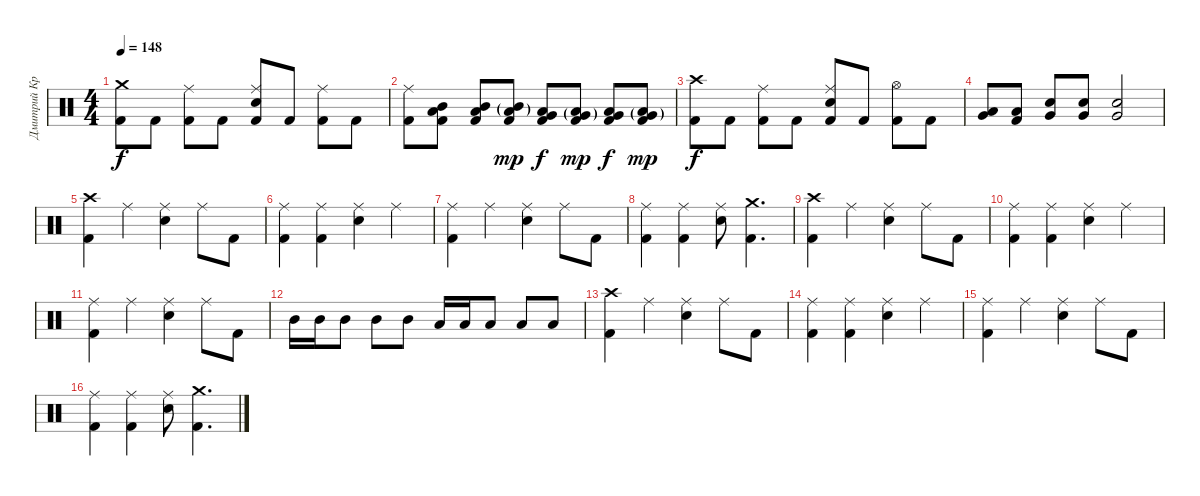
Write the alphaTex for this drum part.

\track ("Дмитрий Кривенков" "Дмитрий Кр") {instrument percussion}
\staff {score}
\articulation defaults
\ts (4 4)
\tempo 148
\clef neutral
\ks c
("Crash medium (hit)" "Kick (hit) 2").8{dy f} "Kick (hit) 2".8 ("Ride (middle)" "Kick (hit) 2").8 "Kick (hit) 2".8 ("Ride (middle)" "Electric Snare (hit)" "Kick (hit) 2").8 "Kick (hit) 2".8 ("Ride (middle)" "Kick (hit) 2").8 "Kick (hit) 2".8 |
("Ride (middle)" "Kick (hit) 2").8 ("Mid Tom (hit)" "Low Tom (hit)" "Kick (hit) 2").8 ("Mid Tom (hit)" "Low Tom (hit)" "Kick (hit) 2").8 ("Mid Tom (hit)"{g} "Low Tom (hit)"{g} "Kick (hit) 2").8{dy mp} ("Low Tom (hit)" "Very Low Tom (hit)" "Kick (hit) 2").8{dy f} ("Low Tom (hit)"{g} "Very Low Tom (hit)"{g} "Kick (hit) 2").8{dy mp} ("Very Low Tom (hit)" "Low Floor Tom (hit)" "Kick (hit) 2").8{dy f} ("Very Low Tom (hit)"{g} "Low Floor Tom (hit)"{g} "Kick (hit) 2").8{dy mp} |
("Crash high (hit)" "Kick (hit) 2").8{dy f} "Kick (hit) 2".8 ("Ride (middle)" "Kick (hit) 2").8 "Kick (hit) 2".8 ("Ride (middle)" "Electric Snare (hit)" "Kick (hit) 2").8 "Kick (hit) 2".8 ("Hi-Hat (open)" "Kick (hit) 2").8 "Kick (hit) 2".8 |
("Very Low Tom (hit)" "Low Floor Tom (hit)").8 ("Low Floor Tom (hit)" "Kick (hit) 2").8 ("Electric Snare (hit)" "Very Low Tom (hit)").8 ("Electric Snare (hit)" "Very Low Tom (hit)").8 ("Electric Snare (hit)" "Very Low Tom (hit)").2 |
("Crash high (hit)" "Kick (hit) 2").4 "Ride (middle)".4 ("Ride (middle)" "Electric Snare (hit)").4 "Ride (middle)".8 "Kick (hit) 2".8 |
("Ride (middle)" "Kick (hit) 2").4 ("Ride (middle)" "Kick (hit) 2").4 ("Ride (middle)" "Electric Snare (hit)").4 "Ride (middle)".4 |
("Ride (middle)" "Kick (hit) 2").4 "Ride (middle)".4 ("Ride (middle)" "Electric Snare (hit)").4 "Ride (middle)".8 "Kick (hit) 2".8 |
("Ride (middle)" "Kick (hit) 2").4 ("Ride (middle)" "Kick (hit) 2").4 ("Ride (middle)" "Electric Snare (hit)").8 ("Crash medium (hit)" "Kick (hit) 2").4{d} |
("Crash high (hit)" "Kick (hit) 2").4 "Ride (middle)".4 ("Ride (middle)" "Electric Snare (hit)").4 "Ride (middle)".8 "Kick (hit) 2".8 |
("Ride (middle)" "Kick (hit) 2").4 ("Ride (middle)" "Kick (hit) 2").4 ("Ride (middle)" "Electric Snare (hit)").4 "Ride (middle)".4 |
("Ride (middle)" "Kick (hit) 2").4 "Ride (middle)".4 ("Ride (middle)" "Electric Snare (hit)").4 "Ride (middle)".8 "Kick (hit) 2".8 |
"Mid Tom (hit)".16 "Mid Tom (hit)".16 "Mid Tom (hit)".8 "Mid Tom (hit)".8 "Mid Tom (hit)".8 "Low Tom (hit)".16 "Low Tom (hit)".16 "Low Tom (hit)".8 "Low Tom (hit)".8 "Low Tom (hit)".8 |
("Crash high (hit)" "Kick (hit) 2").4 "Ride (middle)".4 ("Ride (middle)" "Electric Snare (hit)").4 "Ride (middle)".8 "Kick (hit) 2".8 |
("Ride (middle)" "Kick (hit) 2").4 ("Ride (middle)" "Kick (hit) 2").4 ("Ride (middle)" "Electric Snare (hit)").4 "Ride (middle)".4 |
("Ride (middle)" "Kick (hit) 2").4 "Ride (middle)".4 ("Ride (middle)" "Electric Snare (hit)").4 "Ride (middle)".8 "Kick (hit) 2".8 |
("Ride (middle)" "Kick (hit) 2").4 ("Ride (middle)" "Kick (hit) 2").4 ("Ride (middle)" "Electric Snare (hit)").8 ("Crash medium (hit)" "Kick (hit) 2").4{d}
